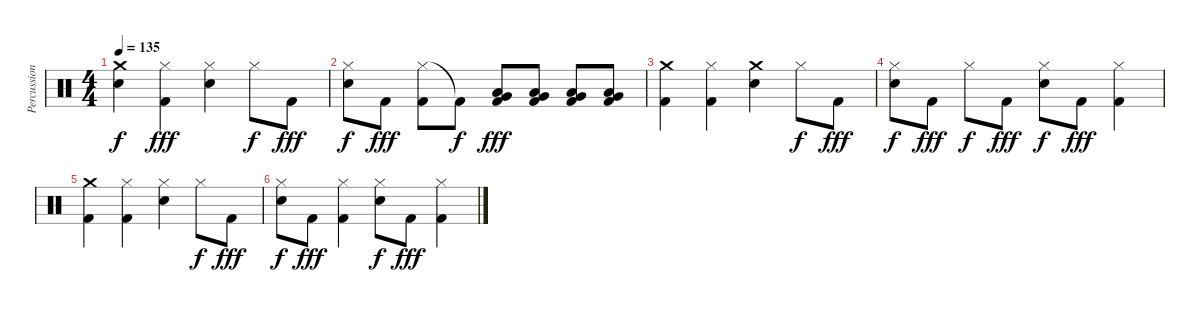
\track ("Percussion" "Percussion") {instrument percussion}
\staff {score}
\articulation defaults
\ts (4 4)
\tempo 135
\clef neutral
\ks c
("Crash medium (hit)" "Electric Snare (hit)").4{dy f} ("Hi-Hat (closed)" "Kick (hit) 2").4{dy fff} ("Hi-Hat (closed)" "Electric Snare (hit)").4 "Hi-Hat (closed)".8{dy f} "Kick (hit) 2".8{dy fff} |
("Hi-Hat (closed)" "Electric Snare (hit)").8{dy f} "Kick (hit) 2".8{dy fff} ("Hi-Hat (closed)" "Kick (hit) 2").8 "Kick (hit) 2"{t}.8{dy f} ("Low Tom (hit)" "Very Low Tom (hit)" "Kick (hit) 2").8{dy fff} ("Low Tom (hit)" "Very Low Tom (hit)" "Kick (hit) 2").8 ("Low Tom (hit)" "Very Low Tom (hit)" "Kick (hit) 2").8 ("Low Tom (hit)" "Very Low Tom (hit)" "Kick (hit) 2").8 |
("Crash medium (hit)" "Kick (hit) 2").4 ("Hi-Hat (closed)" "Kick (hit) 2").4 ("Crash medium (hit)" "Electric Snare (hit)").4 "Hi-Hat (closed)".8{dy f} "Kick (hit) 2".8{dy fff} |
("Hi-Hat (closed)" "Electric Snare (hit)").8{dy f} "Kick (hit) 2".8{dy fff} "Hi-Hat (closed)".8{dy f} "Kick (hit) 2".8{dy fff} ("Hi-Hat (closed)" "Electric Snare (hit)").8{dy f} "Kick (hit) 2".8{dy fff} ("Hi-Hat (closed)" "Kick (hit) 2").4 |
("Crash medium (hit)" "Kick (hit) 2").4 ("Hi-Hat (closed)" "Kick (hit) 2").4 ("Hi-Hat (closed)" "Electric Snare (hit)").4 "Hi-Hat (closed)".8{dy f} "Kick (hit) 2".8{dy fff} |
("Hi-Hat (closed)" "Electric Snare (hit)").8{dy f} "Kick (hit) 2".8{dy fff} ("Hi-Hat (closed)" "Kick (hit) 2").4 ("Hi-Hat (closed)" "Electric Snare (hit)").8{dy f} "Kick (hit) 2".8{dy fff} ("Hi-Hat (closed)" "Kick (hit) 2").4
